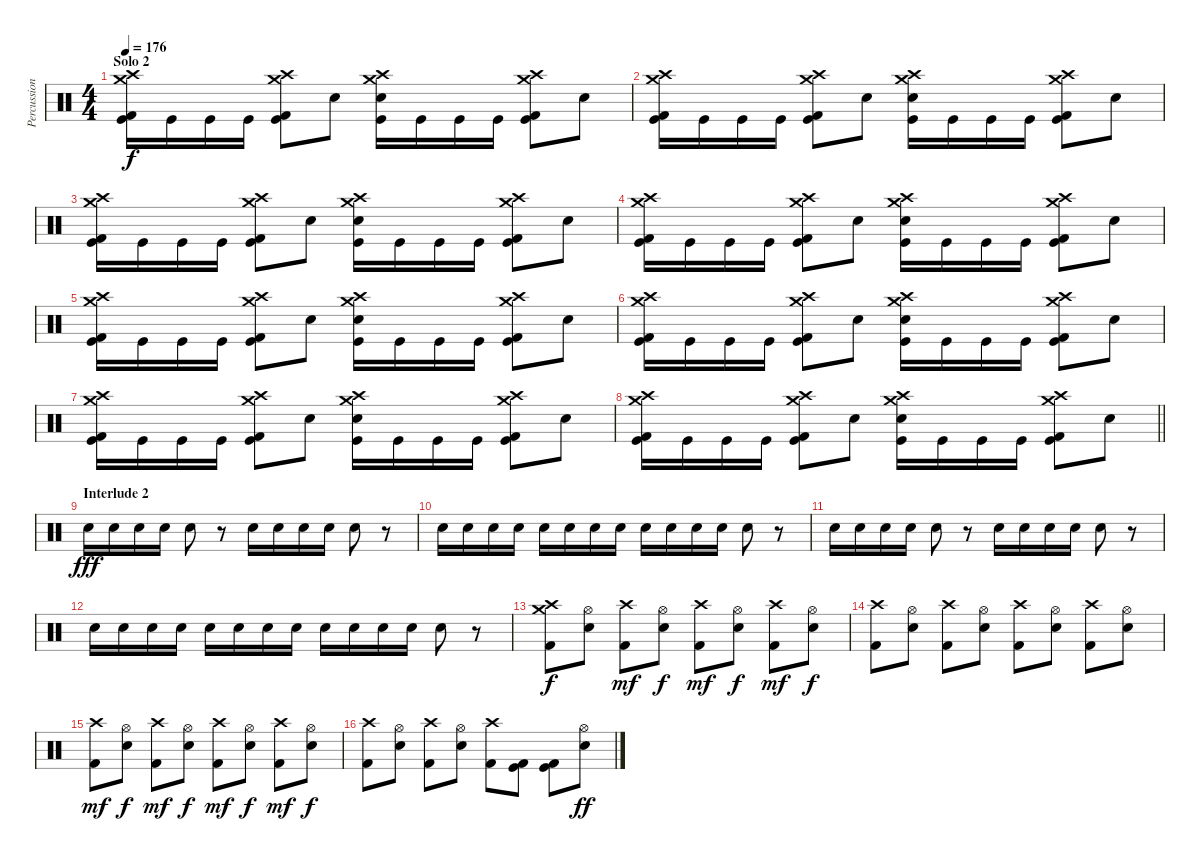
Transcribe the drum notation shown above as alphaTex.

\track ("Percussion" "Percussion") {instrument percussion}
\staff {score}
\articulation defaults
\ts (4 4)
\section ("" "Solo 2")
\tempo 176
\clef neutral
\ks c
("Crash medium (hit)" "Crash high (hit)" "Kick (hit) 2" "Kick (hit)").16{dy f} "Kick (hit)".16 "Kick (hit)".16 "Kick (hit)".16 ("Crash high (hit)" "Crash medium (hit)" "Kick (hit) 2" "Kick (hit)").8 "Snare (hit)"{x}.8 ("Crash medium (hit)" "Crash high (hit)" "Electric Snare (hit)" "Kick (hit)").16 "Kick (hit)".16 "Kick (hit)".16 "Kick (hit)".16 ("Crash high (hit)" "Crash medium (hit)" "Kick (hit) 2" "Kick (hit)").8 "Snare (hit)"{x}.8 |
("Crash medium (hit)" "Crash high (hit)" "Kick (hit) 2" "Kick (hit)").16 "Kick (hit)".16 "Kick (hit)".16 "Kick (hit)".16 ("Crash high (hit)" "Crash medium (hit)" "Kick (hit) 2" "Kick (hit)").8 "Snare (hit)"{x}.8 ("Crash medium (hit)" "Crash high (hit)" "Electric Snare (hit)" "Kick (hit)").16 "Kick (hit)".16 "Kick (hit)".16 "Kick (hit)".16 ("Crash high (hit)" "Crash medium (hit)" "Kick (hit) 2" "Kick (hit)").8 "Snare (hit)"{x}.8 |
("Crash medium (hit)" "Crash high (hit)" "Kick (hit) 2" "Kick (hit)").16 "Kick (hit)".16 "Kick (hit)".16 "Kick (hit)".16 ("Crash high (hit)" "Crash medium (hit)" "Kick (hit) 2" "Kick (hit)").8 "Snare (hit)"{x}.8 ("Crash medium (hit)" "Crash high (hit)" "Electric Snare (hit)" "Kick (hit)").16 "Kick (hit)".16 "Kick (hit)".16 "Kick (hit)".16 ("Crash high (hit)" "Crash medium (hit)" "Kick (hit) 2" "Kick (hit)").8 "Snare (hit)"{x}.8 |
("Crash medium (hit)" "Crash high (hit)" "Kick (hit) 2" "Kick (hit)").16 "Kick (hit)".16 "Kick (hit)".16 "Kick (hit)".16 ("Crash high (hit)" "Crash medium (hit)" "Kick (hit) 2" "Kick (hit)").8 "Snare (hit)"{x}.8 ("Crash medium (hit)" "Crash high (hit)" "Electric Snare (hit)" "Kick (hit)").16 "Kick (hit)".16 "Kick (hit)".16 "Kick (hit)".16 ("Crash high (hit)" "Crash medium (hit)" "Kick (hit) 2" "Kick (hit)").8 "Snare (hit)"{x}.8 |
("Crash medium (hit)" "Crash high (hit)" "Kick (hit) 2" "Kick (hit)").16 "Kick (hit)".16 "Kick (hit)".16 "Kick (hit)".16 ("Crash high (hit)" "Crash medium (hit)" "Kick (hit) 2" "Kick (hit)").8 "Snare (hit)"{x}.8 ("Crash medium (hit)" "Crash high (hit)" "Electric Snare (hit)" "Kick (hit)").16 "Kick (hit)".16 "Kick (hit)".16 "Kick (hit)".16 ("Crash high (hit)" "Crash medium (hit)" "Kick (hit) 2" "Kick (hit)").8 "Snare (hit)"{x}.8 |
("Crash medium (hit)" "Crash high (hit)" "Kick (hit) 2" "Kick (hit)").16 "Kick (hit)".16 "Kick (hit)".16 "Kick (hit)".16 ("Crash high (hit)" "Crash medium (hit)" "Kick (hit) 2" "Kick (hit)").8 "Snare (hit)"{x}.8 ("Crash medium (hit)" "Crash high (hit)" "Electric Snare (hit)" "Kick (hit)").16 "Kick (hit)".16 "Kick (hit)".16 "Kick (hit)".16 ("Crash high (hit)" "Crash medium (hit)" "Kick (hit) 2" "Kick (hit)").8 "Snare (hit)"{x}.8 |
("Crash medium (hit)" "Crash high (hit)" "Kick (hit) 2" "Kick (hit)").16 "Kick (hit)".16 "Kick (hit)".16 "Kick (hit)".16 ("Crash high (hit)" "Crash medium (hit)" "Kick (hit) 2" "Kick (hit)").8 "Snare (hit)"{x}.8 ("Crash medium (hit)" "Crash high (hit)" "Electric Snare (hit)" "Kick (hit)").16 "Kick (hit)".16 "Kick (hit)".16 "Kick (hit)".16 ("Crash high (hit)" "Crash medium (hit)" "Kick (hit) 2" "Kick (hit)").8 "Snare (hit)"{x}.8 |
\barLineRight lightlight
("Crash medium (hit)" "Crash high (hit)" "Kick (hit) 2" "Kick (hit)").16 "Kick (hit)".16 "Kick (hit)".16 "Kick (hit)".16 ("Crash high (hit)" "Crash medium (hit)" "Kick (hit) 2" "Kick (hit)").8 "Snare (hit)"{x}.8 ("Crash medium (hit)" "Crash high (hit)" "Electric Snare (hit)" "Kick (hit)").16 "Kick (hit)".16 "Kick (hit)".16 "Kick (hit)".16 ("Crash high (hit)" "Crash medium (hit)" "Kick (hit) 2" "Kick (hit)").8 "Snare (hit)"{x}.8 |
\section ("" "Interlude 2")
"Electric Snare (hit)".16{dy fff} "Electric Snare (hit)".16 "Electric Snare (hit)".16 "Electric Snare (hit)".16 "Electric Snare (hit)".8 r.8 "Electric Snare (hit)".16 "Electric Snare (hit)".16 "Electric Snare (hit)".16 "Electric Snare (hit)".16 "Electric Snare (hit)".8 r.8 |
"Electric Snare (hit)".16 "Electric Snare (hit)".16 "Electric Snare (hit)".16 "Electric Snare (hit)".16 "Electric Snare (hit)".16 "Electric Snare (hit)".16 "Electric Snare (hit)".16 "Electric Snare (hit)".16 "Electric Snare (hit)".16 "Electric Snare (hit)".16 "Electric Snare (hit)".16 "Electric Snare (hit)".16 "Electric Snare (hit)".8 r.8 |
"Electric Snare (hit)".16 "Electric Snare (hit)".16 "Electric Snare (hit)".16 "Electric Snare (hit)".16 "Electric Snare (hit)".8 r.8 "Electric Snare (hit)".16 "Electric Snare (hit)".16 "Electric Snare (hit)".16 "Electric Snare (hit)".16 "Electric Snare (hit)".8 r.8 |
"Electric Snare (hit)".16 "Electric Snare (hit)".16 "Electric Snare (hit)".16 "Electric Snare (hit)".16 "Electric Snare (hit)".16 "Electric Snare (hit)".16 "Electric Snare (hit)".16 "Electric Snare (hit)".16 "Electric Snare (hit)".16 "Electric Snare (hit)".16 "Electric Snare (hit)".16 "Electric Snare (hit)".16 "Electric Snare (hit)".8 r.8 |
("Crash medium (hit)" "Crash high (hit)" "Kick (hit) 2").8{dy f} ("Hi-Hat (open)" "Electric Snare (hit)").8 ("Crash high (hit)" "Kick (hit) 2").8{dy mf} ("Hi-Hat (open)" "Electric Snare (hit)").8{dy f} ("Crash high (hit)" "Kick (hit) 2").8{dy mf} ("Hi-Hat (open)" "Electric Snare (hit)").8{dy f} ("Crash high (hit)" "Kick (hit) 2").8{dy mf} ("Hi-Hat (open)" "Electric Snare (hit)").8{dy f} |
("Crash high (hit)" "Kick (hit) 2").8 ("Hi-Hat (open)" "Electric Snare (hit)").8 ("Crash high (hit)" "Kick (hit) 2").8 ("Hi-Hat (open)" "Electric Snare (hit)").8 ("Crash high (hit)" "Kick (hit) 2").8 ("Hi-Hat (open)" "Electric Snare (hit)").8 ("Crash high (hit)" "Kick (hit) 2").8 ("Hi-Hat (open)" "Electric Snare (hit)").8 |
("Crash high (hit)" "Kick (hit) 2").8{dy mf} ("Hi-Hat (open)" "Electric Snare (hit)").8{dy f} ("Crash high (hit)" "Kick (hit) 2").8{dy mf} ("Hi-Hat (open)" "Electric Snare (hit)").8{dy f} ("Crash high (hit)" "Kick (hit) 2").8{dy mf} ("Hi-Hat (open)" "Electric Snare (hit)").8{dy f} ("Crash high (hit)" "Kick (hit) 2").8{dy mf} ("Hi-Hat (open)" "Electric Snare (hit)").8{dy f} |
("Crash high (hit)" "Kick (hit) 2").8 ("Hi-Hat (open)" "Electric Snare (hit)").8 ("Crash high (hit)" "Kick (hit) 2").8 ("Hi-Hat (open)" "Electric Snare (hit)").8 ("Crash high (hit)" "Kick (hit) 2").8 ("Kick (hit) 2" "Kick (hit)").8 ("Kick (hit) 2" "Kick (hit)").8 ("Hi-Hat (open)" "Electric Snare (hit)").8{dy ff}
